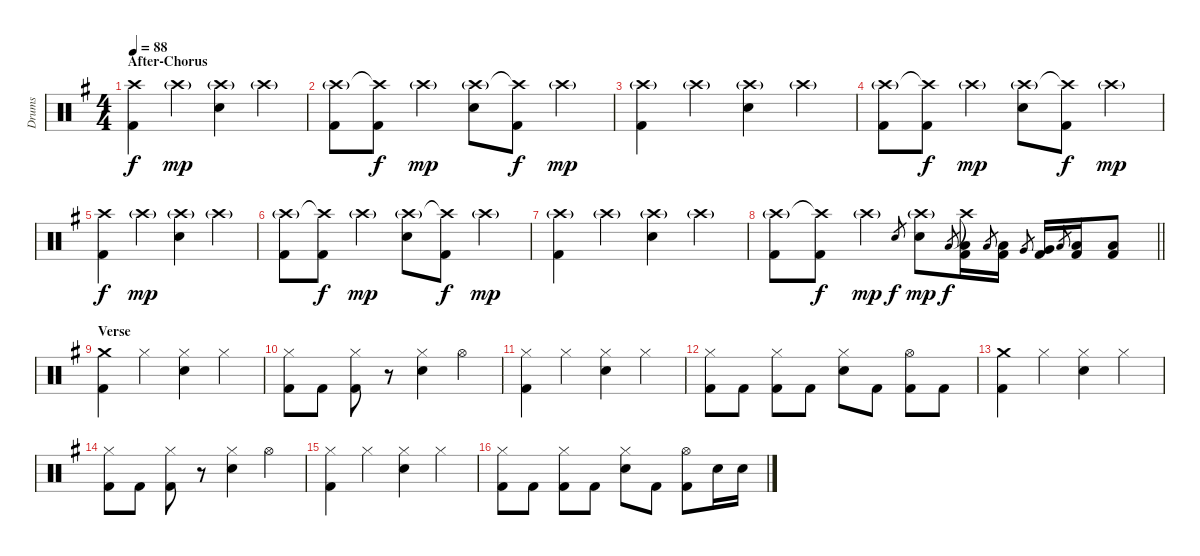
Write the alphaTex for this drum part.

\track ("Drums" "Drums") {instrument percussion}
\staff {score}
\articulation defaults
\ts (4 4)
\section ("" "After-Chorus")
\tempo 88
\clef neutral
\ks g
("Crash high (hit)" "Kick (hit) 2").4{dy f} "Crash high (hit)"{g}.4{dy mp} ("Crash high (hit)"{g} "Electric Snare (hit)").4 "Crash high (hit)"{g}.4 |
("Crash high (hit)"{g} "Kick (hit) 2").8 ("Crash high (hit)"{t} "Kick (hit) 2").8{dy f} "Crash high (hit)"{g}.4{dy mp} ("Crash high (hit)"{g} "Electric Snare (hit)").8 ("Crash high (hit)"{t} "Kick (hit) 2").8{dy f} "Crash high (hit)"{g}.4{dy mp} |
("Crash high (hit)"{g} "Kick (hit) 2").4 "Crash high (hit)"{g}.4 ("Crash high (hit)"{g} "Electric Snare (hit)").4 "Crash high (hit)"{g}.4 |
("Crash high (hit)"{g} "Kick (hit) 2").8 ("Crash high (hit)"{t} "Kick (hit) 2").8{dy f} "Crash high (hit)"{g}.4{dy mp} ("Crash high (hit)"{g} "Electric Snare (hit)").8 ("Crash high (hit)"{t} "Kick (hit) 2").8{dy f} "Crash high (hit)"{g}.4{dy mp} |
("Crash high (hit)" "Kick (hit) 2").4{dy f} "Crash high (hit)"{g}.4{dy mp} ("Crash high (hit)"{g} "Electric Snare (hit)").4 "Crash high (hit)"{g}.4 |
("Crash high (hit)"{g} "Kick (hit) 2").8 ("Crash high (hit)"{t} "Kick (hit) 2").8{dy f} "Crash high (hit)"{g}.4{dy mp} ("Crash high (hit)"{g} "Electric Snare (hit)").8 ("Crash high (hit)"{t} "Kick (hit) 2").8{dy f} "Crash high (hit)"{g}.4{dy mp} |
("Crash high (hit)"{g} "Kick (hit) 2").4 "Crash high (hit)"{g}.4 ("Crash high (hit)"{g} "Electric Snare (hit)").4 "Crash high (hit)"{g}.4 |
\barLineRight lightlight
("Crash high (hit)"{g} "Kick (hit) 2").8 ("Crash high (hit)"{t} "Kick (hit) 2").8{dy f} "Crash high (hit)"{g}.4{dy mp} "Electric Snare (hit)".8{gr dy f} ("Crash high (hit)"{g} "Electric Snare (hit)").8{dy mp} "Low Floor Tom (hit)".8{gr dy f} ("Crash high (hit)"{t} "Low Floor Tom (hit)" "Kick (hit) 2").16 "Low Tom (hit)".8{gr} ("Low Tom (hit)" "Kick (hit) 2").16 "Very Low Tom (hit)".8{gr} ("Very Low Tom (hit)" "Kick (hit) 2").16 "Low Floor Tom (hit)".8{gr} ("Low Floor Tom (hit)" "Kick (hit) 2").16 ("Low Floor Tom (hit)" "Kick (hit) 2").8 |
\section ("" "Verse")
("Crash medium (hit)" "Kick (hit) 2").4 "Hi-Hat (closed)".4 ("Hi-Hat (closed)" "Electric Snare (hit)").4 "Hi-Hat (closed)".4 |
("Hi-Hat (closed)" "Kick (hit) 2").8 "Kick (hit) 2".8 ("Hi-Hat (closed)" "Kick (hit) 2").8 r.8 ("Hi-Hat (closed)" "Electric Snare (hit)").4 "Hi-Hat (open)".4 |
("Hi-Hat (closed)" "Kick (hit) 2").4 "Hi-Hat (closed)".4 ("Hi-Hat (closed)" "Electric Snare (hit)").4 "Hi-Hat (closed)".4 |
("Hi-Hat (closed)" "Kick (hit) 2").8 "Kick (hit) 2".8 ("Hi-Hat (closed)" "Kick (hit) 2").8 "Kick (hit) 2".8 ("Hi-Hat (closed)" "Electric Snare (hit)").8 "Kick (hit) 2".8 ("Hi-Hat (open)" "Kick (hit) 2").8 "Kick (hit) 2".8 |
("Crash medium (hit)" "Kick (hit) 2").4 "Hi-Hat (closed)".4 ("Hi-Hat (closed)" "Electric Snare (hit)").4 "Hi-Hat (closed)".4 |
("Hi-Hat (closed)" "Kick (hit) 2").8 "Kick (hit) 2".8 ("Hi-Hat (closed)" "Kick (hit) 2").8 r.8 ("Hi-Hat (closed)" "Electric Snare (hit)").4 "Hi-Hat (open)".4 |
("Hi-Hat (closed)" "Kick (hit) 2").4 "Hi-Hat (closed)".4 ("Hi-Hat (closed)" "Electric Snare (hit)").4 "Hi-Hat (closed)".4 |
("Hi-Hat (closed)" "Kick (hit) 2").8 "Kick (hit) 2".8 ("Hi-Hat (closed)" "Kick (hit) 2").8 "Kick (hit) 2".8 ("Hi-Hat (closed)" "Electric Snare (hit)").8 "Kick (hit) 2".8 ("Hi-Hat (open)" "Kick (hit) 2").8 "Electric Snare (hit)".16 "Electric Snare (hit)".16
